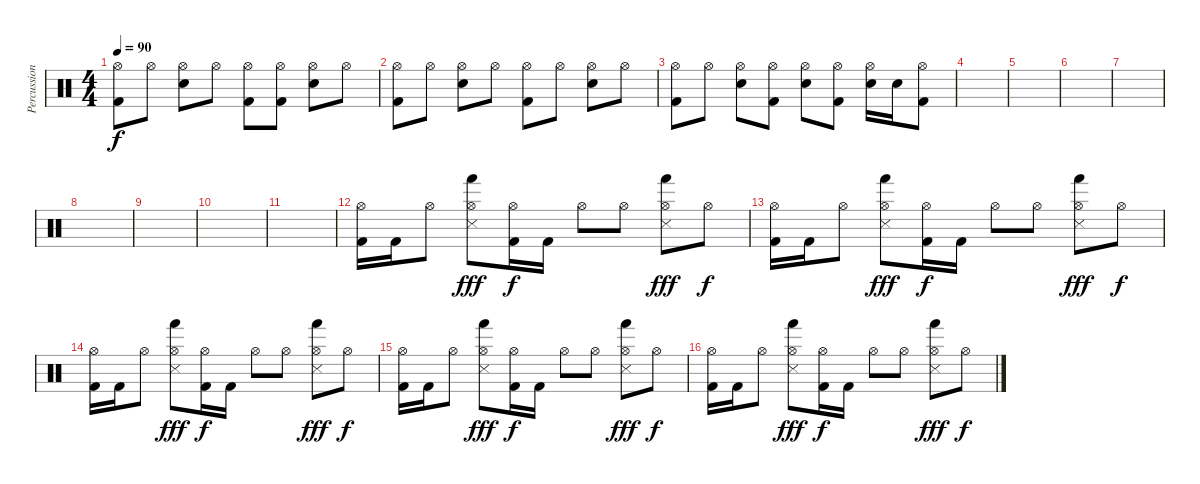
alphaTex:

\track ("Percussions" "Percussion") {instrument percussion}
\staff {score}
\articulation defaults
\ts (4 4)
\tempo 90
\clef neutral
\ks c
("Hi-Hat (open)" "Kick (hit) 2").8{dy f} "Hi-Hat (open)".8 ("Hi-Hat (open)" "Snare (hit) 2").8 "Hi-Hat (open)".8 ("Hi-Hat (open)" "Kick (hit) 2").8 ("Hi-Hat (open)" "Kick (hit) 2").8 ("Hi-Hat (open)" "Snare (hit) 2").8 "Hi-Hat (open)".8 |
("Hi-Hat (open)" "Kick (hit) 2").8 "Hi-Hat (open)".8 ("Hi-Hat (open)" "Snare (hit) 2").8 "Hi-Hat (open)".8 ("Hi-Hat (open)" "Kick (hit) 2").8 "Hi-Hat (open)".8 ("Hi-Hat (open)" "Snare (hit) 2").8 "Hi-Hat (open)".8 |
("Hi-Hat (open)" "Kick (hit) 2").8 "Hi-Hat (open)".8 ("Hi-Hat (open)" "Snare (hit) 2").8 ("Hi-Hat (open)" "Kick (hit) 2").8 ("Hi-Hat (open)" "Snare (hit) 2").8 ("Hi-Hat (open)" "Kick (hit) 2").8 ("Hi-Hat (open)" "Snare (hit) 2").16 "Snare (hit) 2".16 ("Hi-Hat (open)" "Kick (hit) 2").8 |
|
|
|
|
|
|
|
|
("Hi-Hat (open)" "Kick (hit) 2").16 "Kick (hit) 2".16 "Hi-Hat (open)".8 ("Hi-Hat (open)" "Hand (hit)" "Snare (side stick) 3").8{dy fff} ("Hi-Hat (open)" "Kick (hit) 2").16{dy f} "Kick (hit) 2".16 "Hi-Hat (open)".8 "Hi-Hat (open)".8 ("Hi-Hat (open)" "Hand (hit)" "Snare (side stick) 3").8{dy fff} "Hi-Hat (open)".8{dy f} |
("Hi-Hat (open)" "Kick (hit) 2").16 "Kick (hit) 2".16 "Hi-Hat (open)".8 ("Hi-Hat (open)" "Hand (hit)" "Snare (side stick) 3").8{dy fff} ("Hi-Hat (open)" "Kick (hit) 2").16{dy f} "Kick (hit) 2".16 "Hi-Hat (open)".8 "Hi-Hat (open)".8 ("Hi-Hat (open)" "Hand (hit)" "Snare (side stick) 3").8{dy fff} "Hi-Hat (open)".8{dy f} |
("Hi-Hat (open)" "Kick (hit) 2").16 "Kick (hit) 2".16 "Hi-Hat (open)".8 ("Hi-Hat (open)" "Hand (hit)" "Snare (side stick) 3").8{dy fff} ("Hi-Hat (open)" "Kick (hit) 2").16{dy f} "Kick (hit) 2".16 "Hi-Hat (open)".8 "Hi-Hat (open)".8 ("Hi-Hat (open)" "Hand (hit)" "Snare (side stick) 3").8{dy fff} "Hi-Hat (open)".8{dy f} |
("Hi-Hat (open)" "Kick (hit) 2").16 "Kick (hit) 2".16 "Hi-Hat (open)".8 ("Hi-Hat (open)" "Hand (hit)" "Snare (side stick) 3").8{dy fff} ("Hi-Hat (open)" "Kick (hit) 2").16{dy f} "Kick (hit) 2".16 "Hi-Hat (open)".8 "Hi-Hat (open)".8 ("Hi-Hat (open)" "Hand (hit)" "Snare (side stick) 3").8{dy fff} "Hi-Hat (open)".8{dy f} |
("Hi-Hat (open)" "Kick (hit) 2").16 "Kick (hit) 2".16 "Hi-Hat (open)".8 ("Hi-Hat (open)" "Hand (hit)" "Snare (side stick) 3").8{dy fff} ("Hi-Hat (open)" "Kick (hit) 2").16{dy f} "Kick (hit) 2".16 "Hi-Hat (open)".8 "Hi-Hat (open)".8 ("Hi-Hat (open)" "Hand (hit)" "Snare (side stick) 3").8{dy fff} "Hi-Hat (open)".8{dy f}
